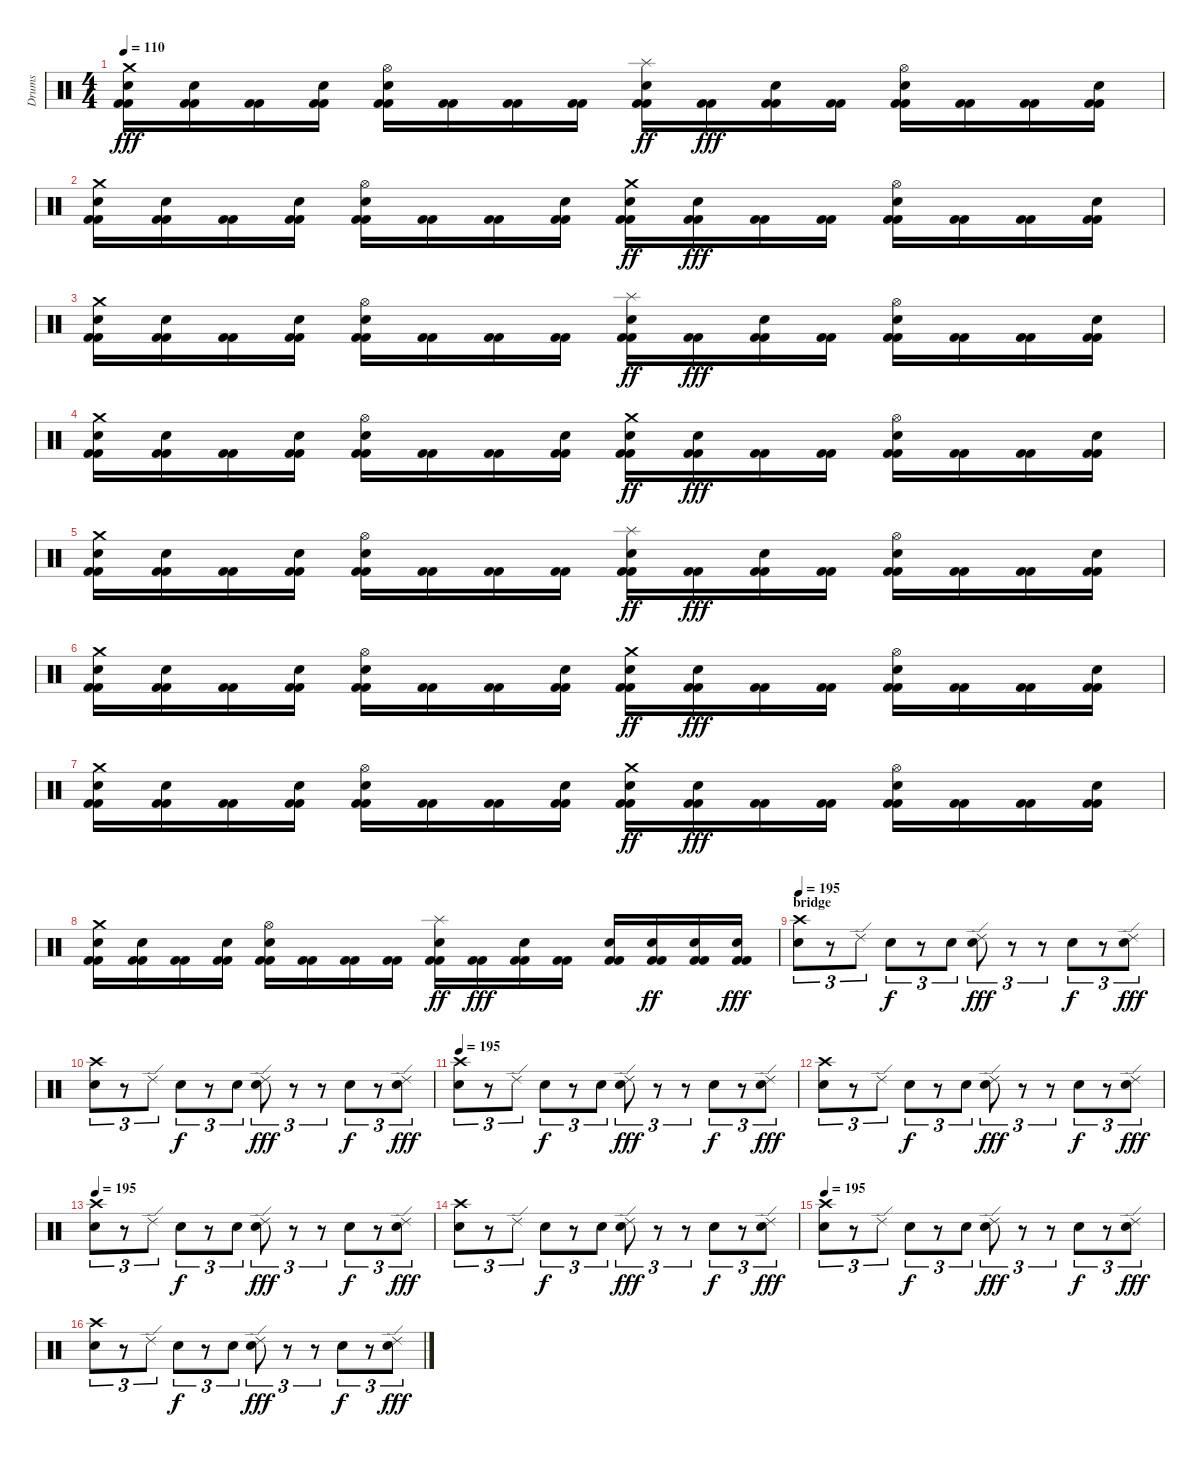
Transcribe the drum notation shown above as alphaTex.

\track ("Drums" "Drums") {instrument percussion}
\staff {score}
\articulation defaults
\ts (4 4)
\tempo 110
\clef neutral
\ks c
("Kick (hit) 2" "Kick (hit) 2" "Electric Snare (hit)" "Crash medium (hit)").16{dy fff} ("Kick (hit) 2" "Kick (hit) 2" "Electric Snare (hit)").16 ("Kick (hit) 2" "Kick (hit) 2").16 ("Kick (hit) 2" "Kick (hit) 2" "Electric Snare (hit)").16 ("Kick (hit) 2" "Kick (hit) 2" "Electric Snare (hit)" "Hi-Hat (open)").16 ("Kick (hit) 2" "Kick (hit) 2").16 ("Kick (hit) 2" "Kick (hit) 2").16 ("Kick (hit) 2" "Kick (hit) 2").16 ("Kick (hit) 2" "Kick (hit) 2" "Electric Snare (hit)" "Splash (hit)").16{dy ff} ("Kick (hit) 2" "Kick (hit) 2").16{dy fff} ("Kick (hit) 2" "Kick (hit) 2" "Electric Snare (hit)").16 ("Kick (hit) 2" "Kick (hit) 2").16 ("Kick (hit) 2" "Kick (hit) 2" "Electric Snare (hit)" "Hi-Hat (open)").16 ("Kick (hit) 2" "Kick (hit) 2").16 ("Kick (hit) 2" "Kick (hit) 2").16 ("Kick (hit) 2" "Kick (hit) 2" "Electric Snare (hit)").16 |
("Kick (hit) 2" "Kick (hit) 2" "Electric Snare (hit)" "Crash medium (hit)").16 ("Kick (hit) 2" "Kick (hit) 2" "Electric Snare (hit)").16 ("Kick (hit) 2" "Kick (hit) 2").16 ("Kick (hit) 2" "Kick (hit) 2" "Electric Snare (hit)").16 ("Kick (hit) 2" "Kick (hit) 2" "Electric Snare (hit)" "Hi-Hat (open)").16 ("Kick (hit) 2" "Kick (hit) 2").16 ("Kick (hit) 2" "Kick (hit) 2").16 ("Kick (hit) 2" "Kick (hit) 2" "Electric Snare (hit)").16 ("Kick (hit) 2" "Kick (hit) 2" "Electric Snare (hit)" "Crash medium (hit)").16{dy ff} ("Kick (hit) 2" "Kick (hit) 2" "Electric Snare (hit)").16{dy fff} ("Kick (hit) 2" "Kick (hit) 2").16 ("Kick (hit) 2" "Kick (hit) 2").16 ("Kick (hit) 2" "Kick (hit) 2" "Electric Snare (hit)" "Hi-Hat (open)").16 ("Kick (hit) 2" "Kick (hit) 2").16 ("Kick (hit) 2" "Kick (hit) 2").16 ("Kick (hit) 2" "Kick (hit) 2" "Electric Snare (hit)").16 |
("Kick (hit) 2" "Kick (hit) 2" "Electric Snare (hit)" "Crash medium (hit)").16 ("Kick (hit) 2" "Kick (hit) 2" "Electric Snare (hit)").16 ("Kick (hit) 2" "Kick (hit) 2").16 ("Kick (hit) 2" "Kick (hit) 2" "Electric Snare (hit)").16 ("Kick (hit) 2" "Kick (hit) 2" "Electric Snare (hit)" "Hi-Hat (open)").16 ("Kick (hit) 2" "Kick (hit) 2").16 ("Kick (hit) 2" "Kick (hit) 2").16 ("Kick (hit) 2" "Kick (hit) 2").16 ("Kick (hit) 2" "Kick (hit) 2" "Electric Snare (hit)" "Splash (hit)").16{dy ff} ("Kick (hit) 2" "Kick (hit) 2").16{dy fff} ("Kick (hit) 2" "Kick (hit) 2" "Electric Snare (hit)").16 ("Kick (hit) 2" "Kick (hit) 2").16 ("Kick (hit) 2" "Kick (hit) 2" "Electric Snare (hit)" "Hi-Hat (open)").16 ("Kick (hit) 2" "Kick (hit) 2").16 ("Kick (hit) 2" "Kick (hit) 2").16 ("Kick (hit) 2" "Kick (hit) 2" "Electric Snare (hit)").16 |
("Kick (hit) 2" "Kick (hit) 2" "Electric Snare (hit)" "Crash medium (hit)").16 ("Kick (hit) 2" "Kick (hit) 2" "Electric Snare (hit)").16 ("Kick (hit) 2" "Kick (hit) 2").16 ("Kick (hit) 2" "Kick (hit) 2" "Electric Snare (hit)").16 ("Kick (hit) 2" "Kick (hit) 2" "Electric Snare (hit)" "Hi-Hat (open)").16 ("Kick (hit) 2" "Kick (hit) 2").16 ("Kick (hit) 2" "Kick (hit) 2").16 ("Kick (hit) 2" "Kick (hit) 2" "Electric Snare (hit)").16 ("Kick (hit) 2" "Kick (hit) 2" "Electric Snare (hit)" "Crash medium (hit)").16{dy ff} ("Kick (hit) 2" "Kick (hit) 2" "Electric Snare (hit)").16{dy fff} ("Kick (hit) 2" "Kick (hit) 2").16 ("Kick (hit) 2" "Kick (hit) 2").16 ("Kick (hit) 2" "Kick (hit) 2" "Electric Snare (hit)" "Hi-Hat (open)").16 ("Kick (hit) 2" "Kick (hit) 2").16 ("Kick (hit) 2" "Kick (hit) 2").16 ("Kick (hit) 2" "Kick (hit) 2" "Electric Snare (hit)").16 |
("Kick (hit) 2" "Kick (hit) 2" "Electric Snare (hit)" "Crash medium (hit)").16 ("Kick (hit) 2" "Kick (hit) 2" "Electric Snare (hit)").16 ("Kick (hit) 2" "Kick (hit) 2").16 ("Kick (hit) 2" "Kick (hit) 2" "Electric Snare (hit)").16 ("Kick (hit) 2" "Kick (hit) 2" "Electric Snare (hit)" "Hi-Hat (open)").16 ("Kick (hit) 2" "Kick (hit) 2").16 ("Kick (hit) 2" "Kick (hit) 2").16 ("Kick (hit) 2" "Kick (hit) 2").16 ("Kick (hit) 2" "Kick (hit) 2" "Electric Snare (hit)" "Splash (hit)").16{dy ff} ("Kick (hit) 2" "Kick (hit) 2").16{dy fff} ("Kick (hit) 2" "Kick (hit) 2" "Electric Snare (hit)").16 ("Kick (hit) 2" "Kick (hit) 2").16 ("Kick (hit) 2" "Kick (hit) 2" "Electric Snare (hit)" "Hi-Hat (open)").16 ("Kick (hit) 2" "Kick (hit) 2").16 ("Kick (hit) 2" "Kick (hit) 2").16 ("Kick (hit) 2" "Kick (hit) 2" "Electric Snare (hit)").16 |
("Kick (hit) 2" "Kick (hit) 2" "Electric Snare (hit)" "Crash medium (hit)").16 ("Kick (hit) 2" "Kick (hit) 2" "Electric Snare (hit)").16 ("Kick (hit) 2" "Kick (hit) 2").16 ("Kick (hit) 2" "Kick (hit) 2" "Electric Snare (hit)").16 ("Kick (hit) 2" "Kick (hit) 2" "Electric Snare (hit)" "Hi-Hat (open)").16 ("Kick (hit) 2" "Kick (hit) 2").16 ("Kick (hit) 2" "Kick (hit) 2").16 ("Kick (hit) 2" "Kick (hit) 2" "Electric Snare (hit)").16 ("Kick (hit) 2" "Kick (hit) 2" "Electric Snare (hit)" "Crash medium (hit)").16{dy ff} ("Kick (hit) 2" "Kick (hit) 2" "Electric Snare (hit)").16{dy fff} ("Kick (hit) 2" "Kick (hit) 2").16 ("Kick (hit) 2" "Kick (hit) 2").16 ("Kick (hit) 2" "Kick (hit) 2" "Electric Snare (hit)" "Hi-Hat (open)").16 ("Kick (hit) 2" "Kick (hit) 2").16 ("Kick (hit) 2" "Kick (hit) 2").16 ("Kick (hit) 2" "Kick (hit) 2" "Electric Snare (hit)").16 |
("Kick (hit) 2" "Kick (hit) 2" "Electric Snare (hit)" "Crash medium (hit)").16 ("Kick (hit) 2" "Kick (hit) 2" "Electric Snare (hit)").16 ("Kick (hit) 2" "Kick (hit) 2").16 ("Kick (hit) 2" "Kick (hit) 2" "Electric Snare (hit)").16 ("Kick (hit) 2" "Kick (hit) 2" "Electric Snare (hit)" "Hi-Hat (open)").16 ("Kick (hit) 2" "Kick (hit) 2").16 ("Kick (hit) 2" "Kick (hit) 2").16 ("Kick (hit) 2" "Kick (hit) 2" "Electric Snare (hit)").16 ("Kick (hit) 2" "Kick (hit) 2" "Electric Snare (hit)" "Crash medium (hit)").16{dy ff} ("Kick (hit) 2" "Kick (hit) 2" "Electric Snare (hit)").16{dy fff} ("Kick (hit) 2" "Kick (hit) 2").16 ("Kick (hit) 2" "Kick (hit) 2").16 ("Kick (hit) 2" "Kick (hit) 2" "Electric Snare (hit)" "Hi-Hat (open)").16 ("Kick (hit) 2" "Kick (hit) 2").16 ("Kick (hit) 2" "Kick (hit) 2").16 ("Kick (hit) 2" "Kick (hit) 2" "Electric Snare (hit)").16 |
("Kick (hit) 2" "Kick (hit) 2" "Electric Snare (hit)" "Crash medium (hit)").16 ("Kick (hit) 2" "Kick (hit) 2" "Electric Snare (hit)").16 ("Kick (hit) 2" "Kick (hit) 2").16 ("Kick (hit) 2" "Kick (hit) 2" "Electric Snare (hit)").16 ("Kick (hit) 2" "Kick (hit) 2" "Electric Snare (hit)" "Hi-Hat (open)").16 ("Kick (hit) 2" "Kick (hit) 2").16 ("Kick (hit) 2" "Kick (hit) 2").16 ("Kick (hit) 2" "Kick (hit) 2").16 ("Kick (hit) 2" "Kick (hit) 2" "Electric Snare (hit)" "Splash (hit)").16{dy ff} ("Kick (hit) 2" "Kick (hit) 2").16{dy fff} ("Kick (hit) 2" "Kick (hit) 2" "Electric Snare (hit)").16 ("Kick (hit) 2" "Kick (hit) 2").16 ("Kick (hit) 2" "Kick (hit) 2" "Electric Snare (hit)").16 ("Kick (hit) 2" "Kick (hit) 2" "Electric Snare (hit)").16{dy ff} ("Kick (hit) 2" "Kick (hit) 2" "Electric Snare (hit)").16 ("Kick (hit) 2" "Kick (hit) 2" "Electric Snare (hit)").16{dy fff} |
\section ("" "bridge")
\tempo 195
("Electric Snare (hit)" "Crash high (hit)").8{tu (3 2)} r.8{tu (3 2)} "Ride (edge) 2".8{tu (3 2)} "Electric Snare (hit)".8{tu (3 2) dy f} r.8{tu (3 2)} "Electric Snare (hit)".8{tu (3 2)} ("Ride (edge) 2" "Electric Snare (hit)").8{tu (3 2) dy fff} r.8{tu (3 2)} r.8{tu (3 2)} "Electric Snare (hit)".8{tu (3 2) dy f} r.8{tu (3 2)} ("Ride (edge) 2" "Electric Snare (hit)").8{tu (3 2) dy fff} |
("Electric Snare (hit)" "Crash high (hit)").8{tu (3 2)} r.8{tu (3 2)} "Ride (edge) 2".8{tu (3 2)} "Electric Snare (hit)".8{tu (3 2) dy f} r.8{tu (3 2)} "Electric Snare (hit)".8{tu (3 2)} ("Ride (edge) 2" "Electric Snare (hit)").8{tu (3 2) dy fff} r.8{tu (3 2)} r.8{tu (3 2)} "Electric Snare (hit)".8{tu (3 2) dy f} r.8{tu (3 2)} ("Ride (edge) 2" "Electric Snare (hit)").8{tu (3 2) dy fff} |
\tempo 195
("Electric Snare (hit)" "Crash high (hit)").8{tu (3 2)} r.8{tu (3 2)} "Ride (edge) 2".8{tu (3 2)} "Electric Snare (hit)".8{tu (3 2) dy f} r.8{tu (3 2)} "Electric Snare (hit)".8{tu (3 2)} ("Ride (edge) 2" "Electric Snare (hit)").8{tu (3 2) dy fff} r.8{tu (3 2)} r.8{tu (3 2)} "Electric Snare (hit)".8{tu (3 2) dy f} r.8{tu (3 2)} ("Ride (edge) 2" "Electric Snare (hit)").8{tu (3 2) dy fff} |
("Electric Snare (hit)" "Crash high (hit)").8{tu (3 2)} r.8{tu (3 2)} "Ride (edge) 2".8{tu (3 2)} "Electric Snare (hit)".8{tu (3 2) dy f} r.8{tu (3 2)} "Electric Snare (hit)".8{tu (3 2)} ("Ride (edge) 2" "Electric Snare (hit)").8{tu (3 2) dy fff} r.8{tu (3 2)} r.8{tu (3 2)} "Electric Snare (hit)".8{tu (3 2) dy f} r.8{tu (3 2)} ("Ride (edge) 2" "Electric Snare (hit)").8{tu (3 2) dy fff} |
\tempo 195
("Electric Snare (hit)" "Crash high (hit)").8{tu (3 2)} r.8{tu (3 2)} "Ride (edge) 2".8{tu (3 2)} "Electric Snare (hit)".8{tu (3 2) dy f} r.8{tu (3 2)} "Electric Snare (hit)".8{tu (3 2)} ("Ride (edge) 2" "Electric Snare (hit)").8{tu (3 2) dy fff} r.8{tu (3 2)} r.8{tu (3 2)} "Electric Snare (hit)".8{tu (3 2) dy f} r.8{tu (3 2)} ("Ride (edge) 2" "Electric Snare (hit)").8{tu (3 2) dy fff} |
("Electric Snare (hit)" "Crash high (hit)").8{tu (3 2)} r.8{tu (3 2)} "Ride (edge) 2".8{tu (3 2)} "Electric Snare (hit)".8{tu (3 2) dy f} r.8{tu (3 2)} "Electric Snare (hit)".8{tu (3 2)} ("Ride (edge) 2" "Electric Snare (hit)").8{tu (3 2) dy fff} r.8{tu (3 2)} r.8{tu (3 2)} "Electric Snare (hit)".8{tu (3 2) dy f} r.8{tu (3 2)} ("Ride (edge) 2" "Electric Snare (hit)").8{tu (3 2) dy fff} |
\tempo 195
("Electric Snare (hit)" "Crash high (hit)").8{tu (3 2)} r.8{tu (3 2)} "Ride (edge) 2".8{tu (3 2)} "Electric Snare (hit)".8{tu (3 2) dy f} r.8{tu (3 2)} "Electric Snare (hit)".8{tu (3 2)} ("Ride (edge) 2" "Electric Snare (hit)").8{tu (3 2) dy fff} r.8{tu (3 2)} r.8{tu (3 2)} "Electric Snare (hit)".8{tu (3 2) dy f} r.8{tu (3 2)} ("Ride (edge) 2" "Electric Snare (hit)").8{tu (3 2) dy fff} |
("Electric Snare (hit)" "Crash high (hit)").8{tu (3 2)} r.8{tu (3 2)} "Ride (edge) 2".8{tu (3 2)} "Electric Snare (hit)".8{tu (3 2) dy f} r.8{tu (3 2)} "Electric Snare (hit)".8{tu (3 2)} ("Ride (edge) 2" "Electric Snare (hit)").8{tu (3 2) dy fff} r.8{tu (3 2)} r.8{tu (3 2)} "Electric Snare (hit)".8{tu (3 2) dy f} r.8{tu (3 2)} ("Ride (edge) 2" "Electric Snare (hit)").8{tu (3 2) dy fff}
